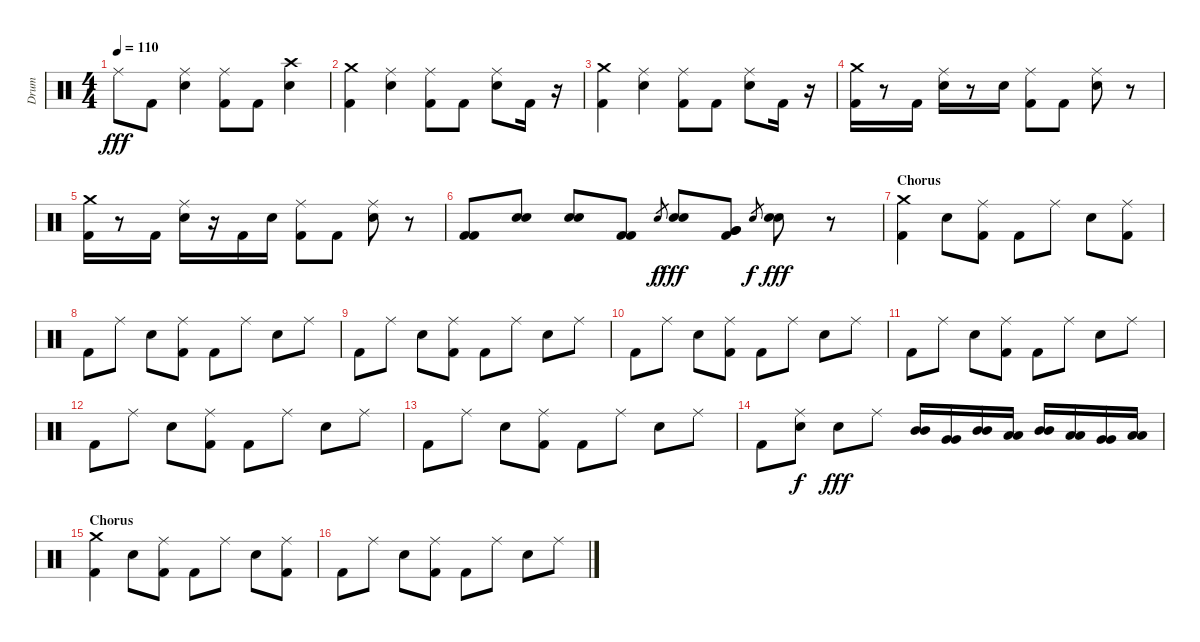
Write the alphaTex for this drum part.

\track ("Drum" "Drum") {instrument percussion}
\staff {score}
\articulation defaults
\ts (4 4)
\tempo 110
\clef neutral
\ks c "Ride (middle)".8{dy fff} "Kick (hit) 2".8
("Ride (middle)" "Electric Snare (hit)").4 ("Ride (middle)" "Kick (hit) 2").8 "Kick (hit) 2".8 ("Crash high (hit)" "Electric Snare (hit)").4 |
("Crash medium (hit)" "Kick (hit) 2").4 ("Ride (middle)" "Electric Snare (hit)").4 ("Ride (middle)" "Kick (hit) 2").8 "Kick (hit) 2".8 ("Ride (middle)" "Electric Snare (hit)").8 "Kick (hit) 2".16 r.16 |
("Crash medium (hit)" "Kick (hit) 2").4 ("Ride (middle)" "Electric Snare (hit)").4 ("Ride (middle)" "Kick (hit) 2").8 "Kick (hit) 2".8 ("Ride (middle)" "Electric Snare (hit)").8 "Kick (hit) 2".16 r.16 |
("Crash medium (hit)" "Kick (hit) 2").16 r.8 "Kick (hit) 2".16 ("Ride (middle)" "Electric Snare (hit)").16 r.8 "Electric Snare (hit)".16 ("Ride (middle)" "Kick (hit) 2").8 "Kick (hit) 2".8 ("Ride (middle)" "Electric Snare (hit)").8 r.8 |
("Crash medium (hit)" "Kick (hit) 2").16 r.8 "Kick (hit) 2".16 ("Ride (middle)" "Electric Snare (hit)").16 r.16 "Kick (hit) 2".16 "Electric Snare (hit)".16 ("Ride (middle)" "Kick (hit) 2").8 "Kick (hit) 2".8 ("Ride (middle)" "Electric Snare (hit)").8 r.8 |
("Kick (hit) 2" "Kick (hit) 2").8 ("Electric Snare (hit)" "Electric Snare (hit)").8 ("Electric Snare (hit)" "Electric Snare (hit)").8 ("Kick (hit) 2" "Kick (hit) 2").8 "Electric Snare (hit)".8{gr dy f} ("Electric Snare (hit)" "Electric Snare (hit)").8{dy fff} ("Very Low Tom (hit)" "Very Low Tom (hit)" "Kick (hit) 2").8 "Electric Snare (hit)".8{gr dy f} ("Electric Snare (hit)" "Electric Snare (hit)").8{dy fff} r.8 |
\section ("" "Chorus")
("Crash medium (hit)" "Kick (hit) 2").4 "Electric Snare (hit)".8 ("Ride (middle)" "Kick (hit) 2").8 "Kick (hit) 2".8 "Ride (middle)".8 "Electric Snare (hit)".8 ("Ride (middle)" "Kick (hit) 2").8 |
"Kick (hit) 2".8 "Ride (middle)".8 "Electric Snare (hit)".8 ("Ride (middle)" "Kick (hit) 2").8 "Kick (hit) 2".8 "Ride (middle)".8 "Electric Snare (hit)".8 "Ride (middle)".8 |
"Kick (hit) 2".8 "Ride (middle)".8 "Electric Snare (hit)".8 ("Ride (middle)" "Kick (hit) 2").8 "Kick (hit) 2".8 "Ride (middle)".8 "Electric Snare (hit)".8 "Ride (middle)".8 |
"Kick (hit) 2".8 "Ride (middle)".8 "Electric Snare (hit)".8 ("Ride (middle)" "Kick (hit) 2").8 "Kick (hit) 2".8 "Ride (middle)".8 "Electric Snare (hit)".8 "Ride (middle)".8 |
"Kick (hit) 2".8 "Ride (middle)".8 "Electric Snare (hit)".8 ("Ride (middle)" "Kick (hit) 2").8 "Kick (hit) 2".8 "Ride (middle)".8 "Electric Snare (hit)".8 "Ride (middle)".8 |
"Kick (hit) 2".8 "Ride (middle)".8 "Electric Snare (hit)".8 ("Ride (middle)" "Kick (hit) 2").8 "Kick (hit) 2".8 "Ride (middle)".8 "Electric Snare (hit)".8 "Ride (middle)".8 |
"Kick (hit) 2".8 "Ride (middle)".8 "Electric Snare (hit)".8 ("Ride (middle)" "Kick (hit) 2").8 "Kick (hit) 2".8 "Ride (middle)".8 "Electric Snare (hit)".8 "Ride (middle)".8 |
"Kick (hit) 2".8 ("Ride (middle)" "Electric Snare (hit)").8{dy f} "Electric Snare (hit)".8{dy fff} "Ride (middle)".8 ("Mid Tom (hit)" "Mid Tom (hit)").16 ("Very Low Tom (hit)" "Very Low Tom (hit)").16 ("Mid Tom (hit)" "Mid Tom (hit)").16 ("Low Tom (hit)" "Low Tom (hit)").16 ("Mid Tom (hit)" "Mid Tom (hit)").16 ("Low Tom (hit)" "Low Tom (hit)").16 ("Very Low Tom (hit)" "Very Low Tom (hit)").16 ("Low Floor Tom (hit)" "Low Floor Tom (hit)").16 |
\section ("" "Chorus")
("Crash medium (hit)" "Kick (hit) 2").4 "Electric Snare (hit)".8 ("Ride (middle)" "Kick (hit) 2").8 "Kick (hit) 2".8 "Ride (middle)".8 "Electric Snare (hit)".8 ("Ride (middle)" "Kick (hit) 2").8 |
"Kick (hit) 2".8 "Ride (middle)".8 "Electric Snare (hit)".8 ("Ride (middle)" "Kick (hit) 2").8 "Kick (hit) 2".8 "Ride (middle)".8 "Electric Snare (hit)".8 "Ride (middle)".8
